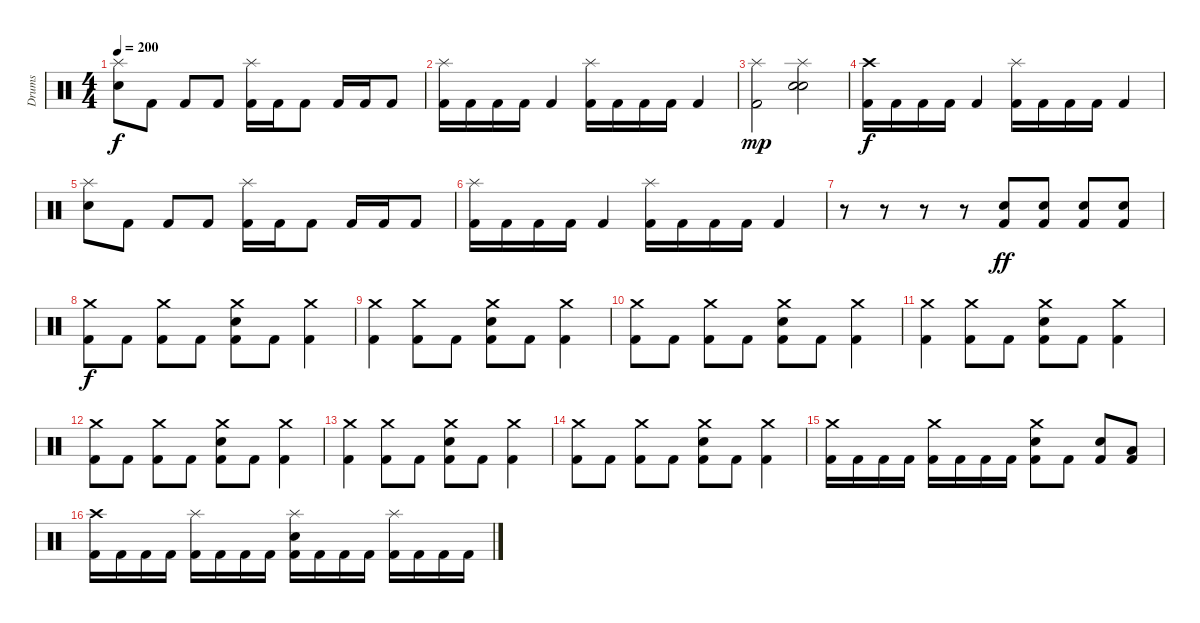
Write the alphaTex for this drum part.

\track ("Drums" "Drums") {instrument percussion}
\staff {score}
\articulation defaults
\ts (4 4)
\tempo 200
\clef neutral
\ks c
("Splash (hit)" "Electric Snare (hit)").8{dy f} "Kick (hit) 2".8 "Kick (hit) 2".8 "Kick (hit) 2".8 ("Splash (hit)" "Kick (hit) 2").16 "Kick (hit) 2".16 "Kick (hit) 2".8 "Kick (hit) 2".16 "Kick (hit) 2".16 "Kick (hit) 2".8 |
("Splash (hit)" "Kick (hit) 2").16 "Kick (hit) 2".16 "Kick (hit) 2".16 "Kick (hit) 2".16 "Kick (hit) 2".4 ("Splash (hit)" "Kick (hit) 2").16 "Kick (hit) 2".16 "Kick (hit) 2".16 "Kick (hit) 2".16 "Kick (hit) 2".4 |
("Splash (hit)" "Kick (hit) 2").2{dy mp} ("Splash (hit)" "Electric Snare (hit)" "Snare (hit) 2").2 |
("Crash high (hit)" "Kick (hit) 2").16{dy f} "Kick (hit) 2".16 "Kick (hit) 2".16 "Kick (hit) 2".16 "Kick (hit) 2".4 ("Splash (hit)" "Kick (hit) 2").16 "Kick (hit) 2".16 "Kick (hit) 2".16 "Kick (hit) 2".16 "Kick (hit) 2".4 |
("Splash (hit)" "Electric Snare (hit)").8 "Kick (hit) 2".8 "Kick (hit) 2".8 "Kick (hit) 2".8 ("Splash (hit)" "Kick (hit) 2").16 "Kick (hit) 2".16 "Kick (hit) 2".8 "Kick (hit) 2".16 "Kick (hit) 2".16 "Kick (hit) 2".8 |
("Splash (hit)" "Kick (hit) 2").16 "Kick (hit) 2".16 "Kick (hit) 2".16 "Kick (hit) 2".16 "Kick (hit) 2".4 ("Splash (hit)" "Kick (hit) 2").16 "Kick (hit) 2".16 "Kick (hit) 2".16 "Kick (hit) 2".16 "Kick (hit) 2".4 |
r.8 r.8 r.8 r.8 ("Electric Snare (hit)" "Kick (hit) 2").8{dy ff} ("Electric Snare (hit)" "Kick (hit) 2").8 ("Electric Snare (hit)" "Kick (hit) 2").8 ("Electric Snare (hit)" "Kick (hit) 2").8 |
("Crash medium (hit)" "Kick (hit) 2").8{dy f} "Kick (hit) 2".8 ("Crash medium (hit)" "Kick (hit) 2").8 "Kick (hit) 2".8 ("Crash medium (hit)" "Electric Snare (hit)" "Kick (hit) 2").8 "Kick (hit) 2".8 ("Crash medium (hit)" "Kick (hit) 2").4 |
("Crash medium (hit)" "Kick (hit) 2").4 ("Crash medium (hit)" "Kick (hit) 2").8 "Kick (hit) 2".8 ("Crash medium (hit)" "Electric Snare (hit)" "Kick (hit) 2").8 "Kick (hit) 2".8 ("Crash medium (hit)" "Kick (hit) 2").4 |
("Crash medium (hit)" "Kick (hit) 2").8 "Kick (hit) 2".8 ("Crash medium (hit)" "Kick (hit) 2").8 "Kick (hit) 2".8 ("Crash medium (hit)" "Electric Snare (hit)" "Kick (hit) 2").8 "Kick (hit) 2".8 ("Crash medium (hit)" "Kick (hit) 2").4 |
("Crash medium (hit)" "Kick (hit) 2").4 ("Crash medium (hit)" "Kick (hit) 2").8 "Kick (hit) 2".8 ("Crash medium (hit)" "Electric Snare (hit)" "Kick (hit) 2").8 "Kick (hit) 2".8 ("Crash medium (hit)" "Kick (hit) 2").4 |
("Crash medium (hit)" "Kick (hit) 2").8 "Kick (hit) 2".8 ("Crash medium (hit)" "Kick (hit) 2").8 "Kick (hit) 2".8 ("Crash medium (hit)" "Electric Snare (hit)" "Kick (hit) 2").8 "Kick (hit) 2".8 ("Crash medium (hit)" "Kick (hit) 2").4 |
("Crash medium (hit)" "Kick (hit) 2").4 ("Crash medium (hit)" "Kick (hit) 2").8 "Kick (hit) 2".8 ("Crash medium (hit)" "Electric Snare (hit)" "Kick (hit) 2").8 "Kick (hit) 2".8 ("Crash medium (hit)" "Kick (hit) 2").4 |
("Crash medium (hit)" "Kick (hit) 2").8 "Kick (hit) 2".8 ("Crash medium (hit)" "Kick (hit) 2").8 "Kick (hit) 2".8 ("Crash medium (hit)" "Electric Snare (hit)" "Kick (hit) 2").8 "Kick (hit) 2".8 ("Crash medium (hit)" "Kick (hit) 2").4 |
("Crash medium (hit)" "Kick (hit) 2").16 "Kick (hit) 2".16 "Kick (hit) 2".16 "Kick (hit) 2".16 ("Crash medium (hit)" "Kick (hit) 2").16 "Kick (hit) 2".16 "Kick (hit) 2".16 "Kick (hit) 2".16 ("Crash medium (hit)" "Electric Snare (hit)" "Kick (hit) 2").8 "Kick (hit) 2".8 ("Electric Snare (hit)" "Kick (hit) 2").8 ("Low Tom (hit)" "Kick (hit) 2").8 |
("Crash high (hit)" "Kick (hit) 2").16 "Kick (hit) 2".16 "Kick (hit) 2".16 "Kick (hit) 2".16 ("Splash (hit)" "Kick (hit) 2").16 "Kick (hit) 2".16 "Kick (hit) 2".16 "Kick (hit) 2".16 ("Splash (hit)" "Electric Snare (hit)" "Kick (hit) 2").16 "Kick (hit) 2".16 "Kick (hit) 2".16 "Kick (hit) 2".16 ("Splash (hit)" "Kick (hit) 2").16 "Kick (hit) 2".16 "Kick (hit) 2".16 "Kick (hit) 2".16
